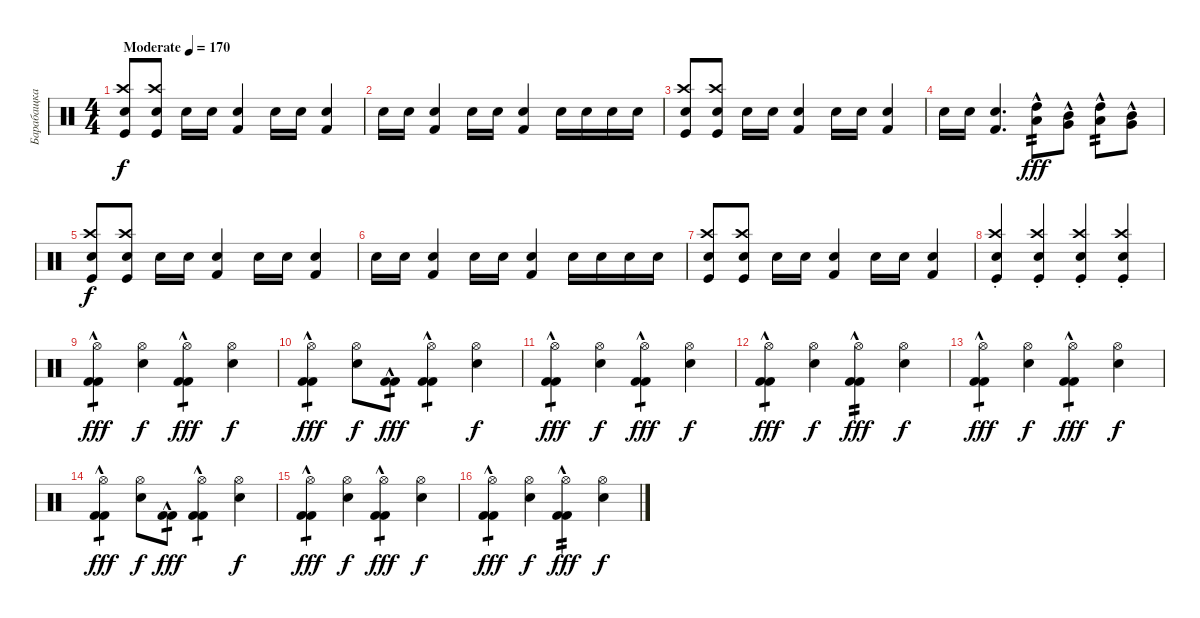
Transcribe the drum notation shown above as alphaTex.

\track ("Барабащка" "Барабащка") {instrument percussion}
\staff {score}
\articulation defaults
\ts (4 4)
\tempo (170 "Moderate")
\clef neutral
\ks c
("Snare (hit) 2" "Crash high (hit)" "Kick (hit)").8{dy f} ("Snare (hit) 2" "Crash high (hit)" "Kick (hit)").8 "Electric Snare (hit)".16 "Electric Snare (hit)".16 ("Electric Snare (hit)" "Kick (hit) 2").4 "Electric Snare (hit)".16 "Electric Snare (hit)".16 ("Electric Snare (hit)" "Kick (hit) 2").4 |
"Electric Snare (hit)".16 "Electric Snare (hit)".16 ("Electric Snare (hit)" "Kick (hit) 2").4 "Electric Snare (hit)".16 "Electric Snare (hit)".16 ("Electric Snare (hit)" "Kick (hit) 2").4 "Electric Snare (hit)".16 "Electric Snare (hit)".16 "Electric Snare (hit)".16 "Electric Snare (hit)".16 |
("Snare (hit) 2" "Crash high (hit)" "Kick (hit)").8 ("Snare (hit) 2" "Crash high (hit)" "Kick (hit)").8 "Electric Snare (hit)".16 "Electric Snare (hit)".16 ("Electric Snare (hit)" "Kick (hit) 2").4 "Electric Snare (hit)".16 "Electric Snare (hit)".16 ("Electric Snare (hit)" "Kick (hit) 2").4 |
"Electric Snare (hit)".16 "Electric Snare (hit)".16 ("Electric Snare (hit)" "Kick (hit) 2").4{d} ("High Tom (hit)"{hac} "Low Tom (hit)"{hac}).8{tp 2 dy fff} ("Mid Tom (hit)"{hac} "Very Low Tom (hit)"{hac}).8 ("High Tom (hit)"{hac} "Low Tom (hit)"{hac}).8{tp 2} ("Mid Tom (hit)"{hac} "Very Low Tom (hit)"{hac}).8 |
("Snare (hit) 2" "Crash high (hit)" "Kick (hit)").8{dy f} ("Snare (hit) 2" "Crash high (hit)" "Kick (hit)").8 "Electric Snare (hit)".16 "Electric Snare (hit)".16 ("Electric Snare (hit)" "Kick (hit) 2").4 "Electric Snare (hit)".16 "Electric Snare (hit)".16 ("Electric Snare (hit)" "Kick (hit) 2").4 |
"Electric Snare (hit)".16 "Electric Snare (hit)".16 ("Electric Snare (hit)" "Kick (hit) 2").4 "Electric Snare (hit)".16 "Electric Snare (hit)".16 ("Electric Snare (hit)" "Kick (hit) 2").4 "Electric Snare (hit)".16 "Electric Snare (hit)".16 "Electric Snare (hit)".16 "Electric Snare (hit)".16 |
("Snare (hit) 2" "Crash high (hit)" "Kick (hit)").8 ("Snare (hit) 2" "Crash high (hit)" "Kick (hit)").8 "Electric Snare (hit)".16 "Electric Snare (hit)".16 ("Electric Snare (hit)" "Kick (hit) 2").4 "Electric Snare (hit)".16 "Electric Snare (hit)".16 ("Electric Snare (hit)" "Kick (hit) 2").4 |
("Snare (hit) 2"{st} "Crash high (hit)" "Kick (hit)").4 ("Snare (hit) 2"{st} "Crash high (hit)" "Kick (hit)").4 ("Snare (hit) 2"{st} "Crash high (hit)" "Kick (hit)").4 ("Snare (hit) 2"{st} "Crash high (hit)" "Kick (hit)").4 |
("Hi-Hat (open)" "Kick (hit) 2"{hac} "Kick (hit) 2").4{tp 1 dy fff} ("Hi-Hat (open)" "Snare (hit) 2").4{dy f} ("Hi-Hat (open)" "Kick (hit) 2"{hac} "Kick (hit) 2").4{tp 1 dy fff} ("Hi-Hat (open)" "Snare (hit) 2").4{dy f} |
("Hi-Hat (open)" "Kick (hit) 2"{hac} "Kick (hit) 2").4{tp 1 dy fff} ("Hi-Hat (open)" "Snare (hit) 2").8{dy f} ("Kick (hit) 2"{hac} "Kick (hit) 2").8{tp 1 dy fff} ("Hi-Hat (open)" "Kick (hit) 2"{hac} "Kick (hit) 2").4{tp 1} ("Hi-Hat (open)" "Snare (hit) 2").4{dy f} |
("Hi-Hat (open)" "Kick (hit) 2"{hac} "Kick (hit) 2").4{tp 1 dy fff} ("Hi-Hat (open)" "Snare (hit) 2").4{dy f} ("Hi-Hat (open)" "Kick (hit) 2"{hac} "Kick (hit) 2").4{tp 1 dy fff} ("Hi-Hat (open)" "Snare (hit) 2").4{dy f} |
("Hi-Hat (open)" "Kick (hit) 2"{hac} "Kick (hit) 2").4{tp 1 dy fff} ("Hi-Hat (open)" "Snare (hit) 2").4{dy f} ("Hi-Hat (open)" "Kick (hit) 2"{hac} "Kick (hit) 2").4{tp 2 dy fff} ("Hi-Hat (open)" "Snare (hit) 2").4{dy f} |
("Hi-Hat (open)" "Kick (hit) 2"{hac} "Kick (hit) 2").4{tp 1 dy fff} ("Hi-Hat (open)" "Snare (hit) 2").4{dy f} ("Hi-Hat (open)" "Kick (hit) 2"{hac} "Kick (hit) 2").4{tp 1 dy fff} ("Hi-Hat (open)" "Snare (hit) 2").4{dy f} |
("Hi-Hat (open)" "Kick (hit) 2"{hac} "Kick (hit) 2").4{tp 1 dy fff} ("Hi-Hat (open)" "Snare (hit) 2").8{dy f} ("Kick (hit) 2"{hac} "Kick (hit) 2").8{tp 1 dy fff} ("Hi-Hat (open)" "Kick (hit) 2"{hac} "Kick (hit) 2").4{tp 1} ("Hi-Hat (open)" "Snare (hit) 2").4{dy f} |
("Hi-Hat (open)" "Kick (hit) 2"{hac} "Kick (hit) 2").4{tp 1 dy fff} ("Hi-Hat (open)" "Snare (hit) 2").4{dy f} ("Hi-Hat (open)" "Kick (hit) 2"{hac} "Kick (hit) 2").4{tp 1 dy fff} ("Hi-Hat (open)" "Snare (hit) 2").4{dy f} |
("Hi-Hat (open)" "Kick (hit) 2"{hac} "Kick (hit) 2").4{tp 1 dy fff} ("Hi-Hat (open)" "Snare (hit) 2").4{dy f} ("Hi-Hat (open)" "Kick (hit) 2"{hac} "Kick (hit) 2").4{tp 2 dy fff} ("Hi-Hat (open)" "Snare (hit) 2").4{dy f}
